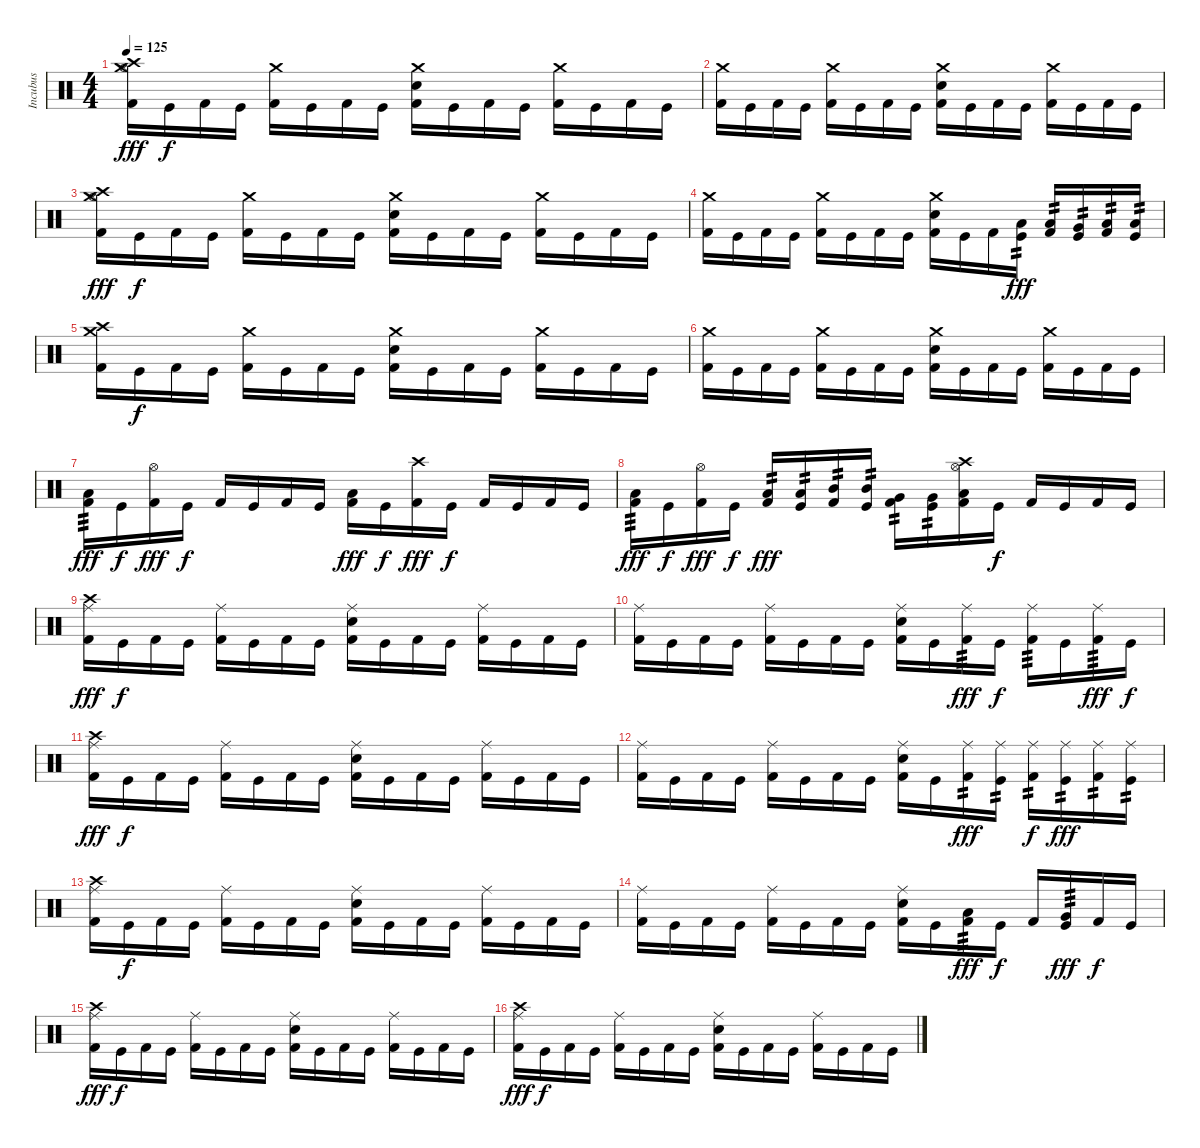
\track ("Incubus" "Incubus") {instrument percussion}
\staff {score}
\articulation defaults
\ts (4 4)
\tempo 125
\clef neutral
\ks c
("Crash high (hit)" "Hi-Hat (open)" "Crash medium (hit)" "Kick (hit) 2").16{dy fff} "Kick (hit)".16{dy f} "Kick (hit) 2".16 "Kick (hit)".16 ("Crash medium (hit)" "Kick (hit) 2").16 "Kick (hit)".16 "Kick (hit) 2".16 "Kick (hit)".16 ("Crash medium (hit)" "Snare (hit) 2" "Kick (hit) 2").16 "Kick (hit)".16 "Kick (hit) 2".16 "Kick (hit)".16 ("Crash medium (hit)" "Kick (hit) 2").16 "Kick (hit)".16 "Kick (hit) 2".16 "Kick (hit)".16 |
("Crash medium (hit)" "Kick (hit) 2").16 "Kick (hit)".16 "Kick (hit) 2".16 "Kick (hit)".16 ("Crash medium (hit)" "Kick (hit) 2").16 "Kick (hit)".16 "Kick (hit) 2".16 "Kick (hit)".16 ("Crash medium (hit)" "Snare (hit) 2" "Kick (hit) 2").16 "Kick (hit)".16 "Kick (hit) 2".16 "Kick (hit)".16 ("Crash medium (hit)" "Kick (hit) 2").16 "Kick (hit)".16 "Kick (hit) 2".16 "Kick (hit)".16 |
("Crash high (hit)" "Hi-Hat (open)" "Crash medium (hit)" "Kick (hit) 2").16{dy fff} "Kick (hit)".16{dy f} "Kick (hit) 2".16 "Kick (hit)".16 ("Crash medium (hit)" "Kick (hit) 2").16 "Kick (hit)".16 "Kick (hit) 2".16 "Kick (hit)".16 ("Crash medium (hit)" "Snare (hit) 2" "Kick (hit) 2").16 "Kick (hit)".16 "Kick (hit) 2".16 "Kick (hit)".16 ("Crash medium (hit)" "Kick (hit) 2").16 "Kick (hit)".16 "Kick (hit) 2".16 "Kick (hit)".16 |
("Crash medium (hit)" "Kick (hit) 2").16 "Kick (hit)".16 "Kick (hit) 2".16 "Kick (hit)".16 ("Crash medium (hit)" "Kick (hit) 2").16 "Kick (hit)".16 "Kick (hit) 2".16 "Kick (hit)".16 ("Crash medium (hit)" "Snare (hit) 2" "Kick (hit) 2").16 "Kick (hit)".16 "Kick (hit) 2".16 ("Low Tom (hit)" "Kick (hit)").16{tp 2 dy fff} ("Low Tom (hit)" "Kick (hit) 2").16{tp 2} ("Very Low Tom (hit)" "Kick (hit)").16{tp 2} ("Low Floor Tom (hit)" "Kick (hit) 2").16{tp 2} ("Low Floor Tom (hit)" "Kick (hit)").16{tp 2} |
("Crash high (hit)" "Crash medium (hit)" "Kick (hit) 2").16 "Kick (hit)".16{dy f} "Kick (hit) 2".16 "Kick (hit)".16 ("Crash medium (hit)" "Kick (hit) 2").16 "Kick (hit)".16 "Kick (hit) 2".16 "Kick (hit)".16 ("Crash medium (hit)" "Snare (hit) 2" "Kick (hit) 2").16 "Kick (hit)".16 "Kick (hit) 2".16 "Kick (hit)".16 ("Crash medium (hit)" "Kick (hit) 2").16 "Kick (hit)".16 "Kick (hit) 2".16 "Kick (hit)".16 |
("Crash medium (hit)" "Kick (hit) 2").16 "Kick (hit)".16 "Kick (hit) 2".16 "Kick (hit)".16 ("Crash medium (hit)" "Kick (hit) 2").16 "Kick (hit)".16 "Kick (hit) 2".16 "Kick (hit)".16 ("Crash medium (hit)" "Snare (hit) 2" "Kick (hit) 2").16 "Kick (hit)".16 "Kick (hit) 2".16 "Kick (hit)".16 ("Crash medium (hit)" "Kick (hit) 2").16 "Kick (hit)".16 "Kick (hit) 2".16 "Kick (hit)".16 |
("Low Tom (hit)" "Kick (hit) 2").16{tp 3 dy fff} "Kick (hit)".16{dy f} ("Hi-Hat (open)" "Kick (hit) 2").16{dy fff} "Kick (hit)".16{dy f} "Kick (hit) 2".16 "Kick (hit)".16 "Kick (hit) 2".16 "Kick (hit)".16 ("Low Tom (hit)" "Kick (hit) 2").16{dy fff} "Kick (hit)".16{dy f} ("Crash high (hit)" "Kick (hit) 2").16{dy fff} "Kick (hit)".16{dy f} "Kick (hit) 2".16 "Kick (hit)".16 "Kick (hit) 2".16 "Kick (hit)".16 |
("Low Tom (hit)" "Kick (hit) 2").16{tp 3 dy fff} "Kick (hit)".16{dy f} ("Hi-Hat (open)" "Kick (hit) 2").16{dy fff} "Kick (hit)".16{dy f} ("Low Tom (hit)" "Kick (hit) 2").16{tp 2 dy fff} ("Low Tom (hit)" "Kick (hit)").16{tp 2} ("Mid Tom (hit)" "Kick (hit) 2").16{tp 2} ("Mid Tom (hit)" "Kick (hit)").16{tp 2} ("Very Low Tom (hit)" "Kick (hit) 2").16{tp 2} ("Very Low Tom (hit)" "Kick (hit)").16{tp 2} ("Crash high (hit)" "Hi-Hat (open)" "Low Floor Tom (hit)" "Kick (hit) 2").16 "Kick (hit)".16{dy f} "Kick (hit) 2".16 "Kick (hit)".16 "Kick (hit) 2".16 "Kick (hit)".16 |
("Crash high (hit)" "Ride (middle)" "Kick (hit) 2").16{dy fff volume 16} "Kick (hit)".16{dy f} "Kick (hit) 2".16 "Kick (hit)".16 ("Ride (middle)" "Kick (hit) 2").16 "Kick (hit)".16 "Kick (hit) 2".16 "Kick (hit)".16 ("Ride (middle)" "Snare (hit) 2" "Kick (hit) 2").16{volume 15} "Kick (hit)".16 "Kick (hit) 2".16 "Kick (hit)".16 ("Ride (middle)" "Kick (hit) 2").16 "Kick (hit)".16 "Kick (hit) 2".16 "Kick (hit)".16 |
("Ride (middle)" "Kick (hit) 2").16{volume 14} "Kick (hit)".16 "Kick (hit) 2".16 "Kick (hit)".16 ("Ride (middle)" "Kick (hit) 2").16 "Kick (hit)".16 "Kick (hit) 2".16 "Kick (hit)".16 ("Ride (middle)" "Snare (hit) 2" "Kick (hit) 2").16{volume 13} "Kick (hit)".16 ("Ride (middle)" "Kick (hit) 2").16{tp 3 dy fff} "Kick (hit)".16{dy f} ("Ride (middle)" "Kick (hit) 2").16{tp 3} "Kick (hit)".16 ("Ride (middle)" "Kick (hit) 2").16{tp 3 dy fff} "Kick (hit)".16{dy f} |
("Crash high (hit)" "Ride (middle)" "Kick (hit) 2").16{dy fff volume 12} "Kick (hit)".16{dy f} "Kick (hit) 2".16 "Kick (hit)".16 ("Ride (middle)" "Kick (hit) 2").16 "Kick (hit)".16 "Kick (hit) 2".16 "Kick (hit)".16 ("Ride (middle)" "Snare (hit) 2" "Kick (hit) 2").16{volume 11} "Kick (hit)".16 "Kick (hit) 2".16 "Kick (hit)".16 ("Ride (middle)" "Kick (hit) 2").16 "Kick (hit)".16 "Kick (hit) 2".16 "Kick (hit)".16 |
("Ride (middle)" "Kick (hit) 2").16{volume 10} "Kick (hit)".16 "Kick (hit) 2".16 "Kick (hit)".16 ("Ride (middle)" "Kick (hit) 2").16 "Kick (hit)".16 "Kick (hit) 2".16 "Kick (hit)".16 ("Ride (middle)" "Snare (hit) 2" "Kick (hit) 2").16{volume 8} "Kick (hit)".16 ("Ride (middle)" "Kick (hit) 2").16{tp 2 dy fff} ("Ride (middle)" "Kick (hit)").16{tp 2} ("Ride (middle)" "Kick (hit) 2").16{tp 2 dy f} ("Ride (middle)" "Kick (hit)").16{tp 2 dy fff} ("Ride (middle)" "Kick (hit) 2").16{tp 2} ("Ride (middle)" "Kick (hit)").16{tp 2} |
("Crash high (hit)" "Ride (middle)" "Kick (hit) 2").16{volume 7} "Kick (hit)".16{dy f} "Kick (hit) 2".16 "Kick (hit)".16 ("Ride (middle)" "Kick (hit) 2").16 "Kick (hit)".16 "Kick (hit) 2".16 "Kick (hit)".16 ("Ride (middle)" "Snare (hit) 2" "Kick (hit) 2").16{volume 6} "Kick (hit)".16 "Kick (hit) 2".16 "Kick (hit)".16 ("Ride (middle)" "Kick (hit) 2").16 "Kick (hit)".16 "Kick (hit) 2".16 "Kick (hit)".16 |
("Ride (middle)" "Kick (hit) 2").16{volume 5} "Kick (hit)".16 "Kick (hit) 2".16 "Kick (hit)".16 ("Ride (middle)" "Kick (hit) 2").16 "Kick (hit)".16 "Kick (hit) 2".16 "Kick (hit)".16 ("Ride (middle)" "Snare (hit) 2" "Kick (hit) 2").16{volume 4} "Kick (hit)".16 ("Low Tom (hit)" "Kick (hit) 2").16{tp 3 dy fff} "Kick (hit)".16{dy f} "Kick (hit) 2".16 ("Very Low Tom (hit)" "Kick (hit)").16{tp 3 dy fff} "Kick (hit) 2".16{dy f} "Kick (hit)".16 |
("Crash high (hit)" "Ride (middle)" "Kick (hit) 2").16{dy fff volume 3} "Kick (hit)".16{dy f} "Kick (hit) 2".16 "Kick (hit)".16 ("Ride (middle)" "Kick (hit) 2").16 "Kick (hit)".16 "Kick (hit) 2".16 "Kick (hit)".16 ("Ride (middle)" "Snare (hit) 2" "Kick (hit) 2").16 "Kick (hit)".16 "Kick (hit) 2".16 "Kick (hit)".16 ("Ride (middle)" "Kick (hit) 2").16{volume 2} "Kick (hit)".16 "Kick (hit) 2".16 "Kick (hit)".16 |
("Crash high (hit)" "Ride (middle)" "Kick (hit) 2").16{dy fff volume 1} "Kick (hit)".16{dy f} "Kick (hit) 2".16 "Kick (hit)".16 ("Ride (middle)" "Kick (hit) 2").16 "Kick (hit)".16 "Kick (hit) 2".16 "Kick (hit)".16 ("Ride (middle)" "Snare (hit) 2" "Kick (hit) 2").16{volume 0} "Kick (hit)".16 "Kick (hit) 2".16 "Kick (hit)".16 ("Ride (middle)" "Kick (hit) 2").16 "Kick (hit)".16 "Kick (hit) 2".16 "Kick (hit)".16
